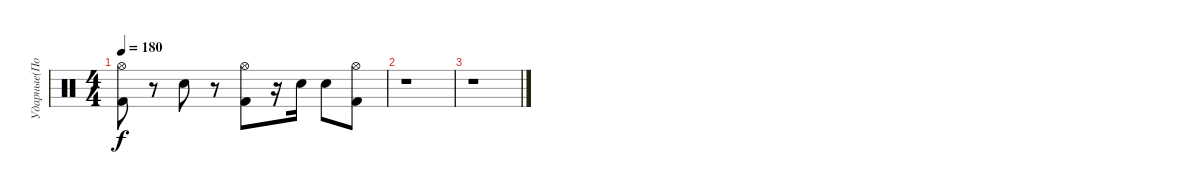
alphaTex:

\track ("Ударные(Потапкин)" "Ударные(По") {instrument percussion}
\staff {score}
\articulation defaults
\ts (4 4)
\tempo 180
\clef neutral
\ks c
("Hi-Hat (open)" "Kick (hit) 2").8{dy f} r.8 "Electric Snare (hit)".8 r.8 ("Hi-Hat (open)" "Kick (hit) 2").8 r.16 "Electric Snare (hit)".16 "Electric Snare (hit)".8 ("Kick (hit) 2" "Hi-Hat (open)").8 |
r.1 |
r.1
